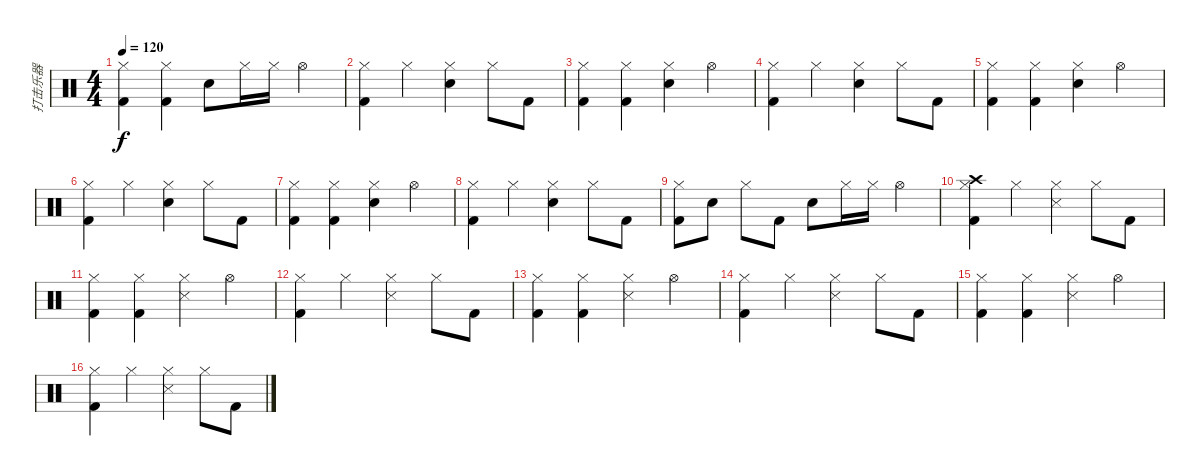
\track ("打击乐器" "打击乐器") {instrument percussion}
\staff {score}
\articulation defaults
\ts (4 4)
\tempo 120
\clef neutral
\ks c
("Hi-Hat (closed)" "Kick (hit) 2").4{dy f} ("Hi-Hat (closed)" "Kick (hit) 2").4 "Electric Snare (hit)".8 "Hi-Hat (closed)".16 "Hi-Hat (closed)".16 "Hi-Hat (open)".4 |
("Hi-Hat (closed)" "Kick (hit) 2").4 "Hi-Hat (closed)".4 ("Hi-Hat (closed)" "Electric Snare (hit)").4 "Hi-Hat (closed)".8 "Kick (hit) 2".8 |
("Hi-Hat (closed)" "Kick (hit) 2").4 ("Hi-Hat (closed)" "Kick (hit) 2").4 ("Hi-Hat (closed)" "Electric Snare (hit)").4 "Hi-Hat (open)".4 |
("Hi-Hat (closed)" "Kick (hit) 2").4 "Hi-Hat (closed)".4 ("Hi-Hat (closed)" "Electric Snare (hit)").4 "Hi-Hat (closed)".8 "Kick (hit) 2".8 |
("Hi-Hat (closed)" "Kick (hit) 2").4 ("Hi-Hat (closed)" "Kick (hit) 2").4 ("Hi-Hat (closed)" "Electric Snare (hit)").4 "Hi-Hat (open)".4 |
("Hi-Hat (closed)" "Kick (hit) 2").4 "Hi-Hat (closed)".4 ("Hi-Hat (closed)" "Electric Snare (hit)").4 "Hi-Hat (closed)".8 "Kick (hit) 2".8 |
("Hi-Hat (closed)" "Kick (hit) 2").4 ("Hi-Hat (closed)" "Kick (hit) 2").4 ("Hi-Hat (closed)" "Electric Snare (hit)").4 "Hi-Hat (open)".4 |
("Hi-Hat (closed)" "Kick (hit) 2").4 "Hi-Hat (closed)".4 ("Hi-Hat (closed)" "Electric Snare (hit)").4 "Hi-Hat (closed)".8 "Kick (hit) 2".8 |
("Hi-Hat (closed)" "Kick (hit) 2").8 "Electric Snare (hit)".8 "Hi-Hat (closed)".8 "Kick (hit) 2".8 "Electric Snare (hit)".8 "Hi-Hat (closed)".16 "Hi-Hat (closed)".16 "Hi-Hat (open)".4 |
("Hi-Hat (closed)" "Crash high (hit)" "Kick (hit) 2").4 "Hi-Hat (closed)".4 ("Hi-Hat (closed)" "Snare (side stick) 3").4 "Hi-Hat (closed)".8 "Kick (hit) 2".8 |
("Hi-Hat (closed)" "Kick (hit) 2").4 ("Hi-Hat (closed)" "Kick (hit) 2").4 ("Hi-Hat (closed)" "Snare (side stick) 3").4 "Hi-Hat (open)".4 |
("Hi-Hat (closed)" "Kick (hit) 2").4 "Hi-Hat (closed)".4 ("Hi-Hat (closed)" "Snare (side stick) 3").4 "Hi-Hat (closed)".8 "Kick (hit) 2".8 |
("Hi-Hat (closed)" "Kick (hit) 2").4 ("Hi-Hat (closed)" "Kick (hit) 2").4 ("Hi-Hat (closed)" "Snare (side stick) 3").4 "Hi-Hat (open)".4 |
("Hi-Hat (closed)" "Kick (hit) 2").4 "Hi-Hat (closed)".4 ("Hi-Hat (closed)" "Snare (side stick) 3").4 "Hi-Hat (closed)".8 "Kick (hit) 2".8 |
("Hi-Hat (closed)" "Kick (hit) 2").4 ("Hi-Hat (closed)" "Kick (hit) 2").4 ("Hi-Hat (closed)" "Snare (side stick) 3").4 "Hi-Hat (open)".4 |
("Hi-Hat (closed)" "Kick (hit) 2").4 "Hi-Hat (closed)".4 ("Hi-Hat (closed)" "Snare (side stick) 3").4 "Hi-Hat (closed)".8 "Kick (hit) 2".8
